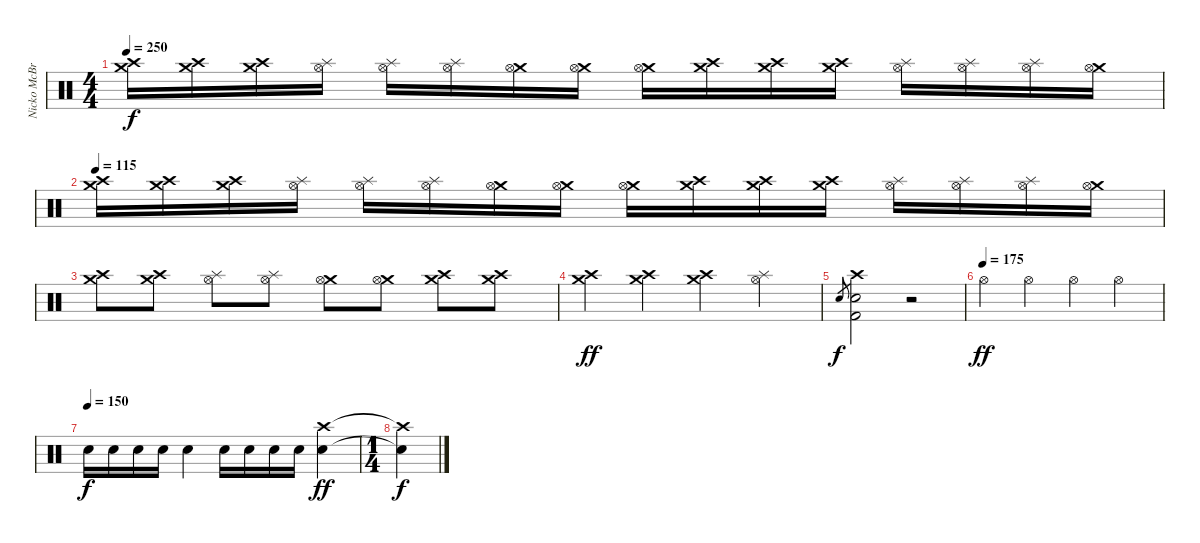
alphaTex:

\track ("Nicko McBrain" "Nicko McBr") {instrument percussion}
\staff {score}
\articulation defaults
\ts (4 4)
\tempo 250
\clef neutral
\ks c
("Crash high (hit)" "Crash medium (hit)").16{dy f} ("Crash high (hit)" "Crash medium (hit)").16 ("Crash high (hit)" "Crash medium (hit)").16 ("Splash (hit)" "Hi-Hat (open)").16 ("Splash (hit)" "Hi-Hat (open)").16 ("Splash (hit)" "Hi-Hat (open)").16 ("Crash medium (hit)" "Hi-Hat (open)").16 ("Crash medium (hit)" "Hi-Hat (open)").16 ("Crash medium (hit)" "Hi-Hat (open)").16 ("Crash high (hit)" "Crash medium (hit)").16 ("Crash high (hit)" "Crash medium (hit)").16 ("Crash high (hit)" "Crash medium (hit)").16 ("Splash (hit)" "Hi-Hat (open)").16 ("Splash (hit)" "Hi-Hat (open)").16 ("Splash (hit)" "Hi-Hat (open)").16 ("Crash medium (hit)" "Hi-Hat (open)").16 |
\tempo 115
("Crash high (hit)" "Crash medium (hit)").16 ("Crash high (hit)" "Crash medium (hit)").16 ("Crash high (hit)" "Crash medium (hit)").16 ("Splash (hit)" "Hi-Hat (open)").16 ("Splash (hit)" "Hi-Hat (open)").16 ("Splash (hit)" "Hi-Hat (open)").16 ("Crash medium (hit)" "Hi-Hat (open)").16 ("Crash medium (hit)" "Hi-Hat (open)").16 ("Crash medium (hit)" "Hi-Hat (open)").16 ("Crash high (hit)" "Crash medium (hit)").16 ("Crash high (hit)" "Crash medium (hit)").16 ("Crash high (hit)" "Crash medium (hit)").16 ("Splash (hit)" "Hi-Hat (open)").16 ("Splash (hit)" "Hi-Hat (open)").16 ("Splash (hit)" "Hi-Hat (open)").16 ("Crash medium (hit)" "Hi-Hat (open)").16 |
("Crash high (hit)" "Crash medium (hit)").8 ("Crash high (hit)" "Crash medium (hit)").8 ("Splash (hit)" "Hi-Hat (open)").8 ("Splash (hit)" "Hi-Hat (open)").8 ("Crash medium (hit)" "Hi-Hat (open)").8 ("Crash medium (hit)" "Hi-Hat (open)").8 ("Crash high (hit)" "Crash medium (hit)").8 ("Crash high (hit)" "Crash medium (hit)").8 |
("Crash high (hit)" "Crash medium (hit)").4{dy ff} ("Crash high (hit)" "Crash medium (hit)").4 ("Crash high (hit)" "Crash medium (hit)").4 ("Splash (hit)" "Hi-Hat (open)").4 |
"Snare (hit) 2".8{gr dy f} ("Snare (hit) 2" "Kick (hit) 2" "Crash high (hit)").2 r.2 |
\tempo (175)
"Hi-Hat (open)".4{dy ff} "Hi-Hat (open)".4 "Hi-Hat (open)".4 "Hi-Hat (open)".4 |
\tempo (150)
"Snare (hit) 2".16{dy f} "Snare (hit) 2".16 "Snare (hit) 2".16 "Snare (hit) 2".16 "Snare (hit) 2".4 "Snare (hit) 2".16 "Snare (hit) 2".16 "Snare (hit) 2".16 "Snare (hit) 2".16 ("Snare (hit) 2" "Crash high (hit)").4{dy ff} |
\ts (1 4)
("Snare (hit) 2"{t} "Crash high (hit)"{t}).4{dy f}
